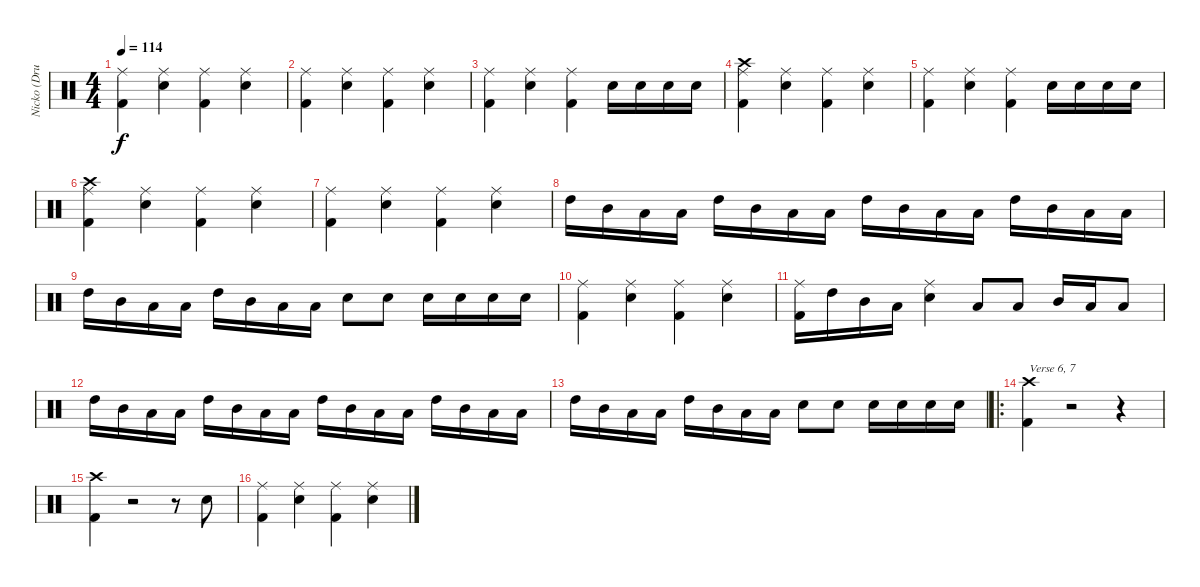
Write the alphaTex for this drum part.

\track ("Nicko (Drums)" "Nicko (Dru") {instrument percussion}
\staff {score}
\articulation defaults
\ts (4 4)
\tempo 114
\clef neutral
\ks c
("Ride (middle)" "Kick (hit) 2").4{dy f} ("Ride (middle)" "Snare (hit) 2").4 ("Ride (middle)" "Kick (hit) 2").4 ("Ride (middle)" "Snare (hit) 2").4 |
("Ride (middle)" "Kick (hit) 2").4 ("Ride (middle)" "Snare (hit) 2").4 ("Ride (middle)" "Kick (hit) 2").4 ("Ride (middle)" "Snare (hit) 2").4 |
("Ride (middle)" "Kick (hit) 2").4 ("Ride (middle)" "Snare (hit) 2").4 ("Ride (middle)" "Kick (hit) 2").4 "Snare (hit) 2".16 "Snare (hit) 2".16 "Snare (hit) 2".16 "Snare (hit) 2".16 |
("Ride (middle)" "Kick (hit) 2" "Crash high (hit)").4 ("Ride (middle)" "Snare (hit) 2").4 ("Ride (middle)" "Kick (hit) 2").4 ("Ride (middle)" "Snare (hit) 2").4 |
("Ride (middle)" "Kick (hit) 2").4 ("Ride (middle)" "Snare (hit) 2").4 ("Ride (middle)" "Kick (hit) 2").4 "Snare (hit) 2".16 "Snare (hit) 2".16 "Snare (hit) 2".16 "Snare (hit) 2".16 |
("Ride (middle)" "Kick (hit) 2" "Crash high (hit)").4 ("Ride (middle)" "Snare (hit) 2").4 ("Ride (middle)" "Kick (hit) 2").4 ("Ride (middle)" "Snare (hit) 2").4 |
("Ride (middle)" "Kick (hit) 2").4 ("Ride (middle)" "Snare (hit) 2").4 ("Ride (middle)" "Kick (hit) 2").4 ("Ride (middle)" "Snare (hit) 2").4 |
"High Tom (hit)".16 "Mid Tom (hit)".16 "Low Tom (hit)".16 "Low Tom (hit)".16 "High Tom (hit)".16 "Mid Tom (hit)".16 "Low Tom (hit)".16 "Low Tom (hit)".16 "High Tom (hit)".16 "Mid Tom (hit)".16 "Low Tom (hit)".16 "Low Tom (hit)".16 "High Tom (hit)".16 "Mid Tom (hit)".16 "Low Tom (hit)".16 "Low Tom (hit)".16 |
"High Tom (hit)".16 "Mid Tom (hit)".16 "Low Tom (hit)".16 "Low Tom (hit)".16 "High Tom (hit)".16 "Mid Tom (hit)".16 "Low Tom (hit)".16 "Low Tom (hit)".16 "Snare (hit) 2".8 "Snare (hit) 2".8 "Snare (hit) 2".16 "Snare (hit) 2".16 "Snare (hit) 2".16 "Snare (hit) 2".16 |
("Ride (middle)" "Kick (hit) 2").4 ("Ride (middle)" "Snare (hit) 2").4 ("Ride (middle)" "Kick (hit) 2").4 ("Ride (middle)" "Snare (hit) 2").4 |
("Ride (middle)" "Kick (hit) 2").16 "High Tom (hit)".16 "Mid Tom (hit)".16 "Low Tom (hit)".16 ("Ride (middle)" "Snare (hit) 2").4 "Low Tom (hit)".8 "Low Tom (hit)".8 "Mid Tom (hit)".16 "Low Tom (hit)".16 "Low Tom (hit)".8 |
"High Tom (hit)".16 "Mid Tom (hit)".16 "Low Tom (hit)".16 "Low Tom (hit)".16 "High Tom (hit)".16 "Mid Tom (hit)".16 "Low Tom (hit)".16 "Low Tom (hit)".16 "High Tom (hit)".16 "Mid Tom (hit)".16 "Low Tom (hit)".16 "Low Tom (hit)".16 "High Tom (hit)".16 "Mid Tom (hit)".16 "Low Tom (hit)".16 "Low Tom (hit)".16 |
"High Tom (hit)".16 "Mid Tom (hit)".16 "Low Tom (hit)".16 "Low Tom (hit)".16 "High Tom (hit)".16 "Mid Tom (hit)".16 "Low Tom (hit)".16 "Low Tom (hit)".16 "Snare (hit) 2".8 "Snare (hit) 2".8 "Snare (hit) 2".16 "Snare (hit) 2".16 "Snare (hit) 2".16 "Snare (hit) 2".16 |
\ro
("Kick (hit) 2" "Crash high (hit)").4{txt "Verse 6, 7"} r.2 r.4 |
("Kick (hit) 2" "Crash high (hit)").4 r.2 r.8 "Snare (hit) 2".8 |
("Ride (middle)" "Kick (hit) 2").4 ("Ride (middle)" "Snare (hit) 2").4 ("Ride (middle)" "Kick (hit) 2").4 ("Ride (middle)" "Snare (hit) 2").4
